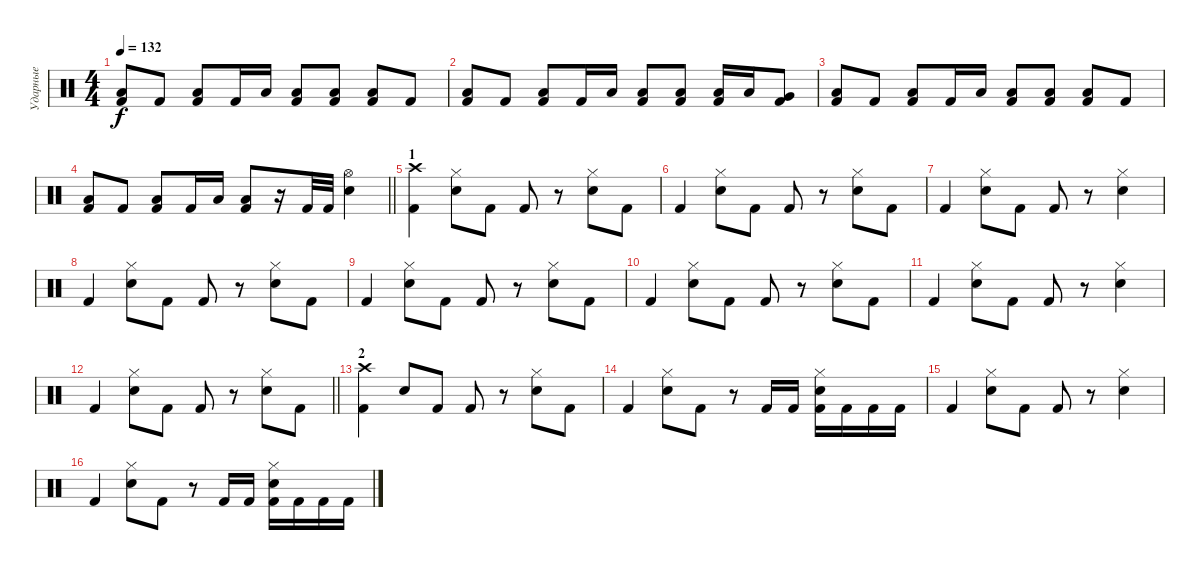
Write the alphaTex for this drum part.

\track ("Ударные" "Ударные") {instrument percussion}
\staff {score}
\articulation defaults
\ts (4 4)
\tempo 132
\clef neutral
\ks c
("Low Tom (hit)" "Kick (hit) 2").8{dy f} "Kick (hit) 2".8 ("Low Tom (hit)" "Kick (hit) 2").8 "Kick (hit) 2".16 "Low Floor Tom (hit)".16 ("Low Tom (hit)" "Kick (hit) 2").8 ("Low Tom (hit)" "Kick (hit) 2").8 ("Low Tom (hit)" "Kick (hit) 2").8 "Kick (hit) 2".8 |
("Low Tom (hit)" "Kick (hit) 2").8 "Kick (hit) 2".8 ("Low Tom (hit)" "Kick (hit) 2").8 "Kick (hit) 2".16 "Low Floor Tom (hit)".16 ("Low Tom (hit)" "Kick (hit) 2").8 ("Low Tom (hit)" "Kick (hit) 2").8 ("Low Tom (hit)" "Kick (hit) 2").16 "Low Tom (hit)".16 ("Very Low Tom (hit)" "Kick (hit) 2").8 |
("Low Tom (hit)" "Kick (hit) 2").8 "Kick (hit) 2".8 ("Low Tom (hit)" "Kick (hit) 2").8 "Kick (hit) 2".16 "Low Floor Tom (hit)".16 ("Low Tom (hit)" "Kick (hit) 2").8 ("Low Tom (hit)" "Kick (hit) 2").8 ("Low Tom (hit)" "Kick (hit) 2").8 "Kick (hit) 2".8 |
\barLineRight lightlight
("Low Tom (hit)" "Kick (hit) 2").8 "Kick (hit) 2".8 ("Low Tom (hit)" "Kick (hit) 2").8 "Kick (hit) 2".16 "Low Floor Tom (hit)".16 ("Low Tom (hit)" "Kick (hit) 2").8 r.16 "Kick (hit) 2".32 "Kick (hit) 2".32 ("Hi-Hat (open)" "Snare (hit) 2").4 |
\section ("" "1")
("Crash high (hit)" "Kick (hit) 2").4 ("Hi-Hat (closed)" "Snare (hit) 2").8 "Kick (hit) 2".8 "Kick (hit) 2".8 r.8 ("Hi-Hat (closed)" "Snare (hit) 2").8 "Kick (hit) 2".8 |
"Kick (hit) 2".4 ("Hi-Hat (closed)" "Snare (hit) 2").8 "Kick (hit) 2".8 "Kick (hit) 2".8 r.8 ("Hi-Hat (closed)" "Snare (hit) 2").8 "Kick (hit) 2".8 |
"Kick (hit) 2".4 ("Hi-Hat (closed)" "Snare (hit) 2").8 "Kick (hit) 2".8 "Kick (hit) 2".8 r.8 ("Hi-Hat (closed)" "Snare (hit) 2").4 |
"Kick (hit) 2".4 ("Hi-Hat (closed)" "Snare (hit) 2").8 "Kick (hit) 2".8 "Kick (hit) 2".8 r.8 ("Hi-Hat (closed)" "Snare (hit) 2").8 "Kick (hit) 2".8 |
"Kick (hit) 2".4 ("Hi-Hat (closed)" "Snare (hit) 2").8 "Kick (hit) 2".8 "Kick (hit) 2".8 r.8 ("Hi-Hat (closed)" "Snare (hit) 2").8 "Kick (hit) 2".8 |
"Kick (hit) 2".4 ("Hi-Hat (closed)" "Snare (hit) 2").8 "Kick (hit) 2".8 "Kick (hit) 2".8 r.8 ("Hi-Hat (closed)" "Snare (hit) 2").8 "Kick (hit) 2".8 |
"Kick (hit) 2".4 ("Hi-Hat (closed)" "Snare (hit) 2").8 "Kick (hit) 2".8 "Kick (hit) 2".8 r.8 ("Hi-Hat (closed)" "Snare (hit) 2").4 |
\barLineRight lightlight "Kick (hit) 2".4
("Hi-Hat (closed)" "Snare (hit) 2").8 "Kick (hit) 2".8 "Kick (hit) 2".8 r.8 ("Hi-Hat (closed)" "Snare (hit) 2").8 "Kick (hit) 2".8 |
\section ("" "2")
("Crash high (hit)" "Kick (hit) 2").4 "Snare (hit) 2".8 "Kick (hit) 2".8 "Kick (hit) 2".8 r.8 ("Hi-Hat (closed)" "Snare (hit) 2").8 "Kick (hit) 2".8 |
"Kick (hit) 2".4 ("Hi-Hat (closed)" "Snare (hit) 2").8 "Kick (hit) 2".8 r.8 "Kick (hit) 2".16 "Kick (hit) 2".16 ("Hi-Hat (closed)" "Snare (hit) 2" "Kick (hit) 2").16 "Kick (hit) 2".16 "Kick (hit) 2".16 "Kick (hit) 2".16 |
"Kick (hit) 2".4 ("Hi-Hat (closed)" "Snare (hit) 2").8 "Kick (hit) 2".8 "Kick (hit) 2".8 r.8 ("Hi-Hat (closed)" "Snare (hit) 2").4 |
"Kick (hit) 2".4 ("Hi-Hat (closed)" "Snare (hit) 2").8 "Kick (hit) 2".8 r.8 "Kick (hit) 2".16 "Kick (hit) 2".16 ("Hi-Hat (closed)" "Snare (hit) 2" "Kick (hit) 2").16 "Kick (hit) 2".16 "Kick (hit) 2".16 "Kick (hit) 2".16
